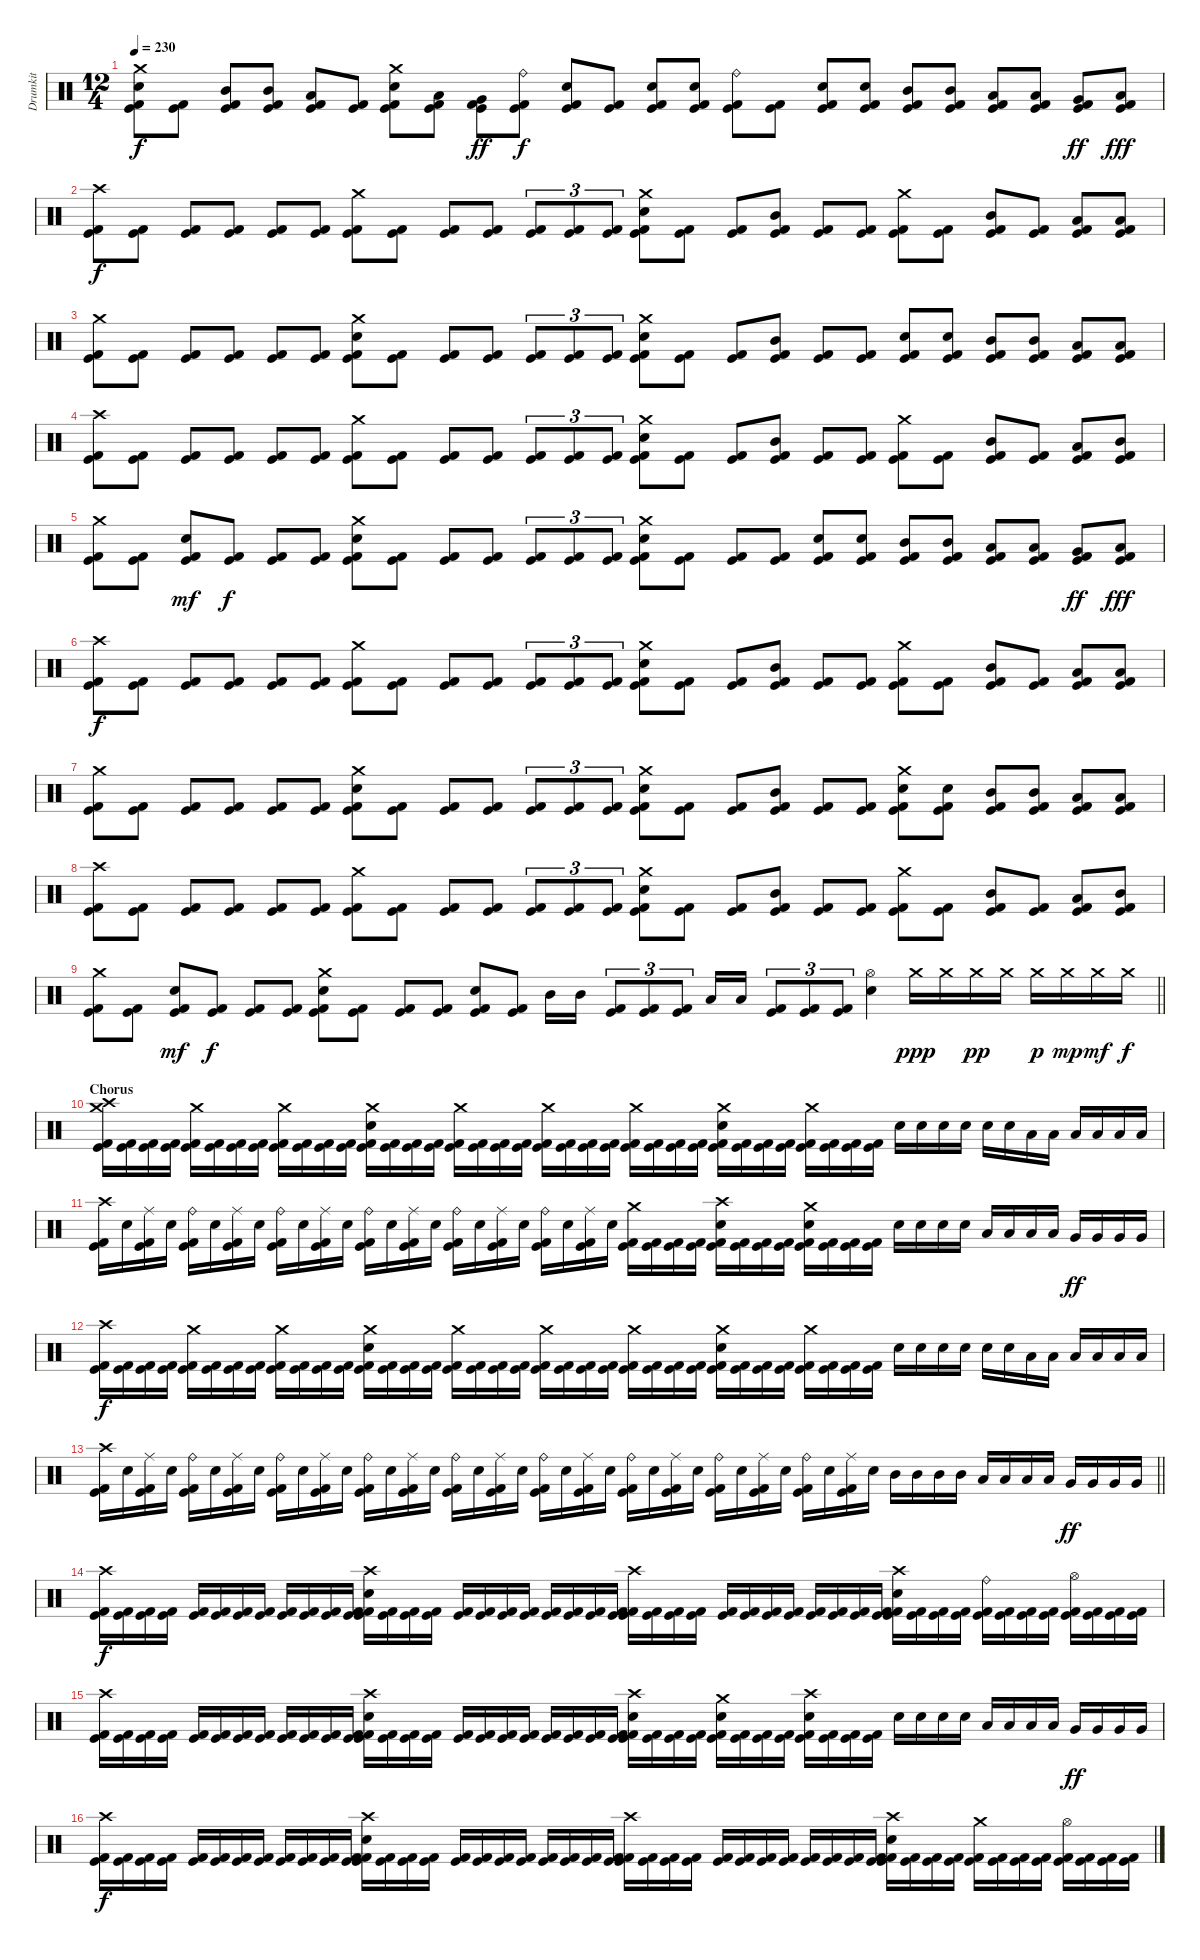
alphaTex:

\track ("Drumkit" "Drumkit") {instrument percussion}
\staff {score}
\articulation defaults
\ts (12 4)
\tempo 230
\clef neutral
\ks c
("Crash medium (hit)" "Electric Snare (hit)" "Kick (hit)" "Kick (hit) 2").8{dy f} ("Kick (hit)" "Kick (hit) 2").8 ("Mid Tom (hit)" "Kick (hit)" "Kick (hit) 2").8 ("Mid Tom (hit)" "Kick (hit)" "Kick (hit) 2").8 ("Low Tom (hit)" "Kick (hit)" "Kick (hit) 2").8 ("Kick (hit)" "Kick (hit) 2").8 ("Crash medium (hit)" "Electric Snare (hit)" "Kick (hit)" "Kick (hit) 2").8 ("Low Tom (hit)" "Kick (hit)" "Kick (hit) 2").8 ("Very Low Tom (hit)" "Kick (hit)" "Kick (hit) 2").8{dy ff} ("Ride (bell)" "Kick (hit)" "Kick (hit) 2").8{dy f} ("Electric Snare (hit)" "Kick (hit)" "Kick (hit) 2").8 ("Kick (hit)" "Kick (hit) 2").8 ("Electric Snare (hit)" "Kick (hit)" "Kick (hit) 2").8 ("Electric Snare (hit)" "Kick (hit)" "Kick (hit) 2").8 ("Ride (bell)" "Kick (hit)" "Kick (hit) 2").8 ("Kick (hit)" "Kick (hit) 2").8 ("Electric Snare (hit)" "Kick (hit)" "Kick (hit) 2").8 ("Electric Snare (hit)" "Kick (hit)" "Kick (hit) 2").8 ("Mid Tom (hit)" "Kick (hit)" "Kick (hit) 2").8 ("Mid Tom (hit)" "Kick (hit)" "Kick (hit) 2").8 ("Low Tom (hit)" "Kick (hit)" "Kick (hit) 2").8 ("Low Tom (hit)" "Kick (hit)" "Kick (hit) 2").8 ("Very Low Tom (hit)" "Kick (hit)" "Kick (hit) 2").8{dy ff} ("Low Floor Tom (hit)" "Kick (hit)" "Kick (hit) 2").8{dy fff} |
("Crash high (hit)" "Kick (hit)" "Kick (hit) 2").8{dy f} ("Kick (hit)" "Kick (hit) 2").8 ("Kick (hit)" "Kick (hit) 2").8 ("Kick (hit)" "Kick (hit) 2").8 ("Kick (hit)" "Kick (hit) 2").8 ("Kick (hit)" "Kick (hit) 2").8 ("Crash medium (hit)" "Kick (hit)" "Kick (hit) 2").8 ("Kick (hit)" "Kick (hit) 2").8 ("Kick (hit)" "Kick (hit) 2").8 ("Kick (hit)" "Kick (hit) 2").8 ("Kick (hit)" "Kick (hit) 2").8{tu (3 2)} ("Kick (hit)" "Kick (hit) 2").8{tu (3 2)} ("Kick (hit)" "Kick (hit) 2").8{tu (3 2)} ("Crash medium (hit)" "Electric Snare (hit)" "Kick (hit)" "Kick (hit) 2").8 ("Kick (hit)" "Kick (hit) 2").8 ("Kick (hit)" "Kick (hit) 2").8 ("Mid Tom (hit)" "Kick (hit)" "Kick (hit) 2").8 ("Kick (hit)" "Kick (hit) 2").8 ("Kick (hit)" "Kick (hit) 2").8 ("Crash medium (hit)" "Kick (hit)" "Kick (hit) 2").8 ("Kick (hit)" "Kick (hit) 2").8 ("Mid Tom (hit)" "Kick (hit)" "Kick (hit) 2").8 ("Kick (hit)" "Kick (hit) 2").8 ("Low Tom (hit)" "Kick (hit)" "Kick (hit) 2").8 ("Low Tom (hit)" "Kick (hit)" "Kick (hit) 2").8 |
("Crash medium (hit)" "Kick (hit)" "Kick (hit) 2").8 ("Kick (hit)" "Kick (hit) 2").8 ("Kick (hit)" "Kick (hit) 2").8 ("Kick (hit)" "Kick (hit) 2").8 ("Kick (hit)" "Kick (hit) 2").8 ("Kick (hit)" "Kick (hit) 2").8 ("Crash medium (hit)" "Electric Snare (hit)" "Kick (hit)" "Kick (hit) 2").8 ("Kick (hit)" "Kick (hit) 2").8 ("Kick (hit)" "Kick (hit) 2").8 ("Kick (hit)" "Kick (hit) 2").8 ("Kick (hit)" "Kick (hit) 2").8{tu (3 2)} ("Kick (hit)" "Kick (hit) 2").8{tu (3 2)} ("Kick (hit)" "Kick (hit) 2").8{tu (3 2)} ("Crash medium (hit)" "Electric Snare (hit)" "Kick (hit)" "Kick (hit) 2").8 ("Kick (hit)" "Kick (hit) 2").8 ("Kick (hit)" "Kick (hit) 2").8 ("Mid Tom (hit)" "Kick (hit)" "Kick (hit) 2").8 ("Kick (hit)" "Kick (hit) 2").8 ("Kick (hit)" "Kick (hit) 2").8 ("Electric Snare (hit)" "Kick (hit)" "Kick (hit) 2").8 ("Electric Snare (hit)" "Kick (hit)" "Kick (hit) 2").8 ("Mid Tom (hit)" "Kick (hit)" "Kick (hit) 2").8 ("Mid Tom (hit)" "Kick (hit)" "Kick (hit) 2").8 ("Low Tom (hit)" "Kick (hit)" "Kick (hit) 2").8 ("Low Tom (hit)" "Kick (hit)" "Kick (hit) 2").8 |
("Crash high (hit)" "Kick (hit)" "Kick (hit) 2").8 ("Kick (hit)" "Kick (hit) 2").8 ("Kick (hit)" "Kick (hit) 2").8 ("Kick (hit)" "Kick (hit) 2").8 ("Kick (hit)" "Kick (hit) 2").8 ("Kick (hit)" "Kick (hit) 2").8 ("Crash medium (hit)" "Kick (hit)" "Kick (hit) 2").8 ("Kick (hit)" "Kick (hit) 2").8 ("Kick (hit)" "Kick (hit) 2").8 ("Kick (hit)" "Kick (hit) 2").8 ("Kick (hit)" "Kick (hit) 2").8{tu (3 2)} ("Kick (hit)" "Kick (hit) 2").8{tu (3 2)} ("Kick (hit)" "Kick (hit) 2").8{tu (3 2)} ("Crash medium (hit)" "Electric Snare (hit)" "Kick (hit)" "Kick (hit) 2").8 ("Kick (hit)" "Kick (hit) 2").8 ("Kick (hit)" "Kick (hit) 2").8 ("Mid Tom (hit)" "Kick (hit)" "Kick (hit) 2").8 ("Kick (hit)" "Kick (hit) 2").8 ("Kick (hit)" "Kick (hit) 2").8 ("Crash medium (hit)" "Kick (hit)" "Kick (hit) 2").8 ("Kick (hit)" "Kick (hit) 2").8 ("Mid Tom (hit)" "Kick (hit)" "Kick (hit) 2").8 ("Kick (hit)" "Kick (hit) 2").8 ("Low Tom (hit)" "Kick (hit)" "Kick (hit) 2").8 ("Mid Tom (hit)" "Kick (hit)" "Kick (hit) 2").8 |
("Crash medium (hit)" "Kick (hit)" "Kick (hit) 2").8 ("Kick (hit)" "Kick (hit) 2").8 ("Electric Snare (hit)" "Kick (hit)" "Kick (hit) 2").8{dy mf} ("Kick (hit)" "Kick (hit) 2").8{dy f} ("Kick (hit)" "Kick (hit) 2").8 ("Kick (hit)" "Kick (hit) 2").8 ("Crash medium (hit)" "Electric Snare (hit)" "Kick (hit)" "Kick (hit) 2").8 ("Kick (hit)" "Kick (hit) 2").8 ("Kick (hit)" "Kick (hit) 2").8 ("Kick (hit)" "Kick (hit) 2").8 ("Kick (hit)" "Kick (hit) 2").8{tu (3 2)} ("Kick (hit)" "Kick (hit) 2").8{tu (3 2)} ("Kick (hit)" "Kick (hit) 2").8{tu (3 2)} ("Crash medium (hit)" "Electric Snare (hit)" "Kick (hit)" "Kick (hit) 2").8 ("Kick (hit)" "Kick (hit) 2").8 ("Kick (hit)" "Kick (hit) 2").8 ("Kick (hit)" "Kick (hit) 2").8 ("Electric Snare (hit)" "Kick (hit)" "Kick (hit) 2").8 ("Electric Snare (hit)" "Kick (hit)" "Kick (hit) 2").8 ("Mid Tom (hit)" "Kick (hit)" "Kick (hit) 2").8 ("Mid Tom (hit)" "Kick (hit)" "Kick (hit) 2").8 ("Low Tom (hit)" "Kick (hit)" "Kick (hit) 2").8 ("Low Tom (hit)" "Kick (hit)" "Kick (hit) 2").8 ("Very Low Tom (hit)" "Kick (hit)" "Kick (hit) 2").8{dy ff} ("Low Floor Tom (hit)" "Kick (hit)" "Kick (hit) 2").8{dy fff} |
("Crash high (hit)" "Kick (hit)" "Kick (hit) 2").8{dy f} ("Kick (hit)" "Kick (hit) 2").8 ("Kick (hit)" "Kick (hit) 2").8 ("Kick (hit)" "Kick (hit) 2").8 ("Kick (hit)" "Kick (hit) 2").8 ("Kick (hit)" "Kick (hit) 2").8 ("Crash medium (hit)" "Kick (hit)" "Kick (hit) 2").8 ("Kick (hit)" "Kick (hit) 2").8 ("Kick (hit)" "Kick (hit) 2").8 ("Kick (hit)" "Kick (hit) 2").8 ("Kick (hit)" "Kick (hit) 2").8{tu (3 2)} ("Kick (hit)" "Kick (hit) 2").8{tu (3 2)} ("Kick (hit)" "Kick (hit) 2").8{tu (3 2)} ("Crash medium (hit)" "Electric Snare (hit)" "Kick (hit)" "Kick (hit) 2").8 ("Kick (hit)" "Kick (hit) 2").8 ("Kick (hit)" "Kick (hit) 2").8 ("Mid Tom (hit)" "Kick (hit)" "Kick (hit) 2").8 ("Kick (hit)" "Kick (hit) 2").8 ("Kick (hit)" "Kick (hit) 2").8 ("Crash medium (hit)" "Kick (hit)" "Kick (hit) 2").8 ("Kick (hit)" "Kick (hit) 2").8 ("Mid Tom (hit)" "Kick (hit)" "Kick (hit) 2").8 ("Kick (hit)" "Kick (hit) 2").8 ("Low Tom (hit)" "Kick (hit)" "Kick (hit) 2").8 ("Low Tom (hit)" "Kick (hit)" "Kick (hit) 2").8 |
("Crash medium (hit)" "Kick (hit)" "Kick (hit) 2").8 ("Kick (hit)" "Kick (hit) 2").8 ("Kick (hit)" "Kick (hit) 2").8 ("Kick (hit)" "Kick (hit) 2").8 ("Kick (hit)" "Kick (hit) 2").8 ("Kick (hit)" "Kick (hit) 2").8 ("Crash medium (hit)" "Electric Snare (hit)" "Kick (hit)" "Kick (hit) 2").8 ("Kick (hit)" "Kick (hit) 2").8 ("Kick (hit)" "Kick (hit) 2").8 ("Kick (hit)" "Kick (hit) 2").8 ("Kick (hit)" "Kick (hit) 2").8{tu (3 2)} ("Kick (hit)" "Kick (hit) 2").8{tu (3 2)} ("Kick (hit)" "Kick (hit) 2").8{tu (3 2)} ("Crash medium (hit)" "Electric Snare (hit)" "Kick (hit)" "Kick (hit) 2").8 ("Kick (hit)" "Kick (hit) 2").8 ("Kick (hit)" "Kick (hit) 2").8 ("Mid Tom (hit)" "Kick (hit)" "Kick (hit) 2").8 ("Kick (hit)" "Kick (hit) 2").8 ("Kick (hit)" "Kick (hit) 2").8 ("Crash medium (hit)" "Electric Snare (hit)" "Kick (hit)" "Kick (hit) 2").8 ("Electric Snare (hit)" "Kick (hit)" "Kick (hit) 2").8 ("Mid Tom (hit)" "Kick (hit)" "Kick (hit) 2").8 ("Mid Tom (hit)" "Kick (hit)" "Kick (hit) 2").8 ("Low Tom (hit)" "Kick (hit)" "Kick (hit) 2").8 ("Low Tom (hit)" "Kick (hit)" "Kick (hit) 2").8 |
("Crash high (hit)" "Kick (hit)" "Kick (hit) 2").8 ("Kick (hit)" "Kick (hit) 2").8 ("Kick (hit)" "Kick (hit) 2").8 ("Kick (hit)" "Kick (hit) 2").8 ("Kick (hit)" "Kick (hit) 2").8 ("Kick (hit)" "Kick (hit) 2").8 ("Crash medium (hit)" "Kick (hit)" "Kick (hit) 2").8 ("Kick (hit)" "Kick (hit) 2").8 ("Kick (hit)" "Kick (hit) 2").8 ("Kick (hit)" "Kick (hit) 2").8 ("Kick (hit)" "Kick (hit) 2").8{tu (3 2)} ("Kick (hit)" "Kick (hit) 2").8{tu (3 2)} ("Kick (hit)" "Kick (hit) 2").8{tu (3 2)} ("Crash medium (hit)" "Electric Snare (hit)" "Kick (hit)" "Kick (hit) 2").8 ("Kick (hit)" "Kick (hit) 2").8 ("Kick (hit)" "Kick (hit) 2").8 ("Mid Tom (hit)" "Kick (hit)" "Kick (hit) 2").8 ("Kick (hit)" "Kick (hit) 2").8 ("Kick (hit)" "Kick (hit) 2").8 ("Crash medium (hit)" "Kick (hit)" "Kick (hit) 2").8 ("Kick (hit)" "Kick (hit) 2").8 ("Mid Tom (hit)" "Kick (hit)" "Kick (hit) 2").8 ("Kick (hit)" "Kick (hit) 2").8 ("Low Tom (hit)" "Kick (hit)" "Kick (hit) 2").8 ("Mid Tom (hit)" "Kick (hit)" "Kick (hit) 2").8 |
\barLineRight lightlight
("Crash medium (hit)" "Kick (hit)" "Kick (hit) 2").8 ("Kick (hit)" "Kick (hit) 2").8 ("Electric Snare (hit)" "Kick (hit)" "Kick (hit) 2").8{dy mf} ("Kick (hit)" "Kick (hit) 2").8{dy f} ("Kick (hit)" "Kick (hit) 2").8 ("Kick (hit)" "Kick (hit) 2").8 ("Crash medium (hit)" "Electric Snare (hit)" "Kick (hit)" "Kick (hit) 2").8 ("Kick (hit)" "Kick (hit) 2").8 ("Kick (hit)" "Kick (hit) 2").8 ("Kick (hit)" "Kick (hit) 2").8 ("Electric Snare (hit)" "Kick (hit)" "Kick (hit) 2").8 ("Kick (hit)" "Kick (hit) 2").8 "Mid Tom (hit)".16 "Mid Tom (hit)".16 ("Kick (hit)" "Kick (hit) 2").8{tu (3 2)} ("Kick (hit)" "Kick (hit) 2").8{tu (3 2)} ("Kick (hit)" "Kick (hit) 2").8{tu (3 2)} "Low Tom (hit)".16 "Low Tom (hit)".16 ("Kick (hit)" "Kick (hit) 2").8{tu (3 2)} ("Kick (hit)" "Kick (hit) 2").8{tu (3 2)} ("Kick (hit)" "Kick (hit) 2").8{tu (3 2)} ("Hi-Hat (open)" "Electric Snare (hit)").4 "Crash medium (hit)".16{dy ppp} "Crash medium (hit)".16 "Crash medium (hit)".16{dy pp} "Crash medium (hit)".16 "Crash medium (hit)".16{dy p} "Crash medium (hit)".16{dy mp} "Crash medium (hit)".16{dy mf} "Crash medium (hit)".16{dy f} |
\section ("" "Chorus")
("Crash high (hit)" "Crash medium (hit)" "Kick (hit)" "Kick (hit) 2").16 ("Kick (hit)" "Kick (hit) 2").16 ("Kick (hit)" "Kick (hit) 2").16 ("Kick (hit)" "Kick (hit) 2").16 ("Crash medium (hit)" "Kick (hit)" "Kick (hit) 2").16 ("Kick (hit)" "Kick (hit) 2").16 ("Kick (hit)" "Kick (hit) 2").16 ("Kick (hit)" "Kick (hit) 2").16 ("Crash medium (hit)" "Kick (hit)" "Kick (hit) 2").16 ("Kick (hit)" "Kick (hit) 2").16 ("Kick (hit)" "Kick (hit) 2").16 ("Kick (hit)" "Kick (hit) 2").16 ("Crash medium (hit)" "Electric Snare (hit)" "Kick (hit)" "Kick (hit) 2").16 ("Kick (hit)" "Kick (hit) 2").16 ("Kick (hit)" "Kick (hit) 2").16 ("Kick (hit)" "Kick (hit) 2").16 ("Crash medium (hit)" "Kick (hit)" "Kick (hit) 2").16 ("Kick (hit)" "Kick (hit) 2").16 ("Kick (hit)" "Kick (hit) 2").16 ("Kick (hit)" "Kick (hit) 2").16 ("Crash medium (hit)" "Kick (hit)" "Kick (hit) 2").16 ("Kick (hit)" "Kick (hit) 2").16 ("Kick (hit)" "Kick (hit) 2").16 ("Kick (hit)" "Kick (hit) 2").16 ("Crash medium (hit)" "Kick (hit)" "Kick (hit) 2").16 ("Kick (hit)" "Kick (hit) 2").16 ("Kick (hit)" "Kick (hit) 2").16 ("Kick (hit)" "Kick (hit) 2").16 ("Crash medium (hit)" "Electric Snare (hit)" "Kick (hit)" "Kick (hit) 2").16 ("Kick (hit)" "Kick (hit) 2").16 ("Kick (hit)" "Kick (hit) 2").16 ("Kick (hit)" "Kick (hit) 2").16 ("Crash medium (hit)" "Kick (hit)" "Kick (hit) 2").16 ("Kick (hit)" "Kick (hit) 2").16 ("Kick (hit)" "Kick (hit) 2").16 ("Kick (hit)" "Kick (hit) 2").16 "Electric Snare (hit)".16 "Electric Snare (hit)".16 "Electric Snare (hit)".16 "Electric Snare (hit)".16 "Electric Snare (hit)".16 "Electric Snare (hit)".16 "Low Tom (hit)".16 "Low Tom (hit)".16 "Low Tom (hit)".16 "Low Tom (hit)".16 "Low Tom (hit)".16 "Low Tom (hit)".16 |
("Crash high (hit)" "Kick (hit)" "Kick (hit) 2").16 "Electric Snare (hit)".16 ("Ride (middle)" "Kick (hit)" "Kick (hit) 2").16 "Electric Snare (hit)".16 ("Ride (bell)" "Kick (hit)" "Kick (hit) 2").16 "Electric Snare (hit)".16 ("Ride (middle)" "Kick (hit)" "Kick (hit) 2").16 "Electric Snare (hit)".16 ("Ride (bell)" "Kick (hit)" "Kick (hit) 2").16 "Electric Snare (hit)".16 ("Ride (middle)" "Kick (hit)" "Kick (hit) 2").16 "Electric Snare (hit)".16 ("Ride (bell)" "Kick (hit)" "Kick (hit) 2").16 "Electric Snare (hit)".16 ("Ride (middle)" "Kick (hit)" "Kick (hit) 2").16 "Electric Snare (hit)".16 ("Ride (bell)" "Kick (hit)" "Kick (hit) 2").16 "Electric Snare (hit)".16 ("Ride (middle)" "Kick (hit)" "Kick (hit) 2").16 "Electric Snare (hit)".16 ("Ride (bell)" "Kick (hit)" "Kick (hit) 2").16 "Electric Snare (hit)".16 ("Ride (middle)" "Kick (hit)" "Kick (hit) 2").16 "Electric Snare (hit)".16 ("Crash medium (hit)" "Kick (hit)" "Kick (hit) 2").16 ("Kick (hit)" "Kick (hit) 2").16 ("Kick (hit)" "Kick (hit) 2").16 ("Kick (hit)" "Kick (hit) 2").16 ("Crash high (hit)" "Electric Snare (hit)" "Kick (hit)" "Kick (hit) 2").16 ("Kick (hit)" "Kick (hit) 2").16 ("Kick (hit)" "Kick (hit) 2").16 ("Kick (hit)" "Kick (hit) 2").16 ("Crash medium (hit)" "Electric Snare (hit)" "Kick (hit)" "Kick (hit) 2").16 ("Kick (hit)" "Kick (hit) 2").16 ("Kick (hit)" "Kick (hit) 2").16 ("Kick (hit)" "Kick (hit) 2").16 "Electric Snare (hit)".16 "Electric Snare (hit)".16 "Electric Snare (hit)".16 "Electric Snare (hit)".16 "Low Tom (hit)".16 "Low Tom (hit)".16 "Low Tom (hit)".16 "Low Tom (hit)".16 "Very Low Tom (hit)".16{dy ff} "Very Low Tom (hit)".16 "Very Low Tom (hit)".16 "Very Low Tom (hit)".16 |
("Crash high (hit)" "Kick (hit)" "Kick (hit) 2").16{dy f} ("Kick (hit)" "Kick (hit) 2").16 ("Kick (hit)" "Kick (hit) 2").16 ("Kick (hit)" "Kick (hit) 2").16 ("Crash medium (hit)" "Kick (hit)" "Kick (hit) 2").16 ("Kick (hit)" "Kick (hit) 2").16 ("Kick (hit)" "Kick (hit) 2").16 ("Kick (hit)" "Kick (hit) 2").16 ("Crash medium (hit)" "Kick (hit)" "Kick (hit) 2").16 ("Kick (hit)" "Kick (hit) 2").16 ("Kick (hit)" "Kick (hit) 2").16 ("Kick (hit)" "Kick (hit) 2").16 ("Crash medium (hit)" "Electric Snare (hit)" "Kick (hit)" "Kick (hit) 2").16 ("Kick (hit)" "Kick (hit) 2").16 ("Kick (hit)" "Kick (hit) 2").16 ("Kick (hit)" "Kick (hit) 2").16 ("Crash medium (hit)" "Kick (hit)" "Kick (hit) 2").16 ("Kick (hit)" "Kick (hit) 2").16 ("Kick (hit)" "Kick (hit) 2").16 ("Kick (hit)" "Kick (hit) 2").16 ("Crash medium (hit)" "Kick (hit)" "Kick (hit) 2").16 ("Kick (hit)" "Kick (hit) 2").16 ("Kick (hit)" "Kick (hit) 2").16 ("Kick (hit)" "Kick (hit) 2").16 ("Crash medium (hit)" "Kick (hit)" "Kick (hit) 2").16 ("Kick (hit)" "Kick (hit) 2").16 ("Kick (hit)" "Kick (hit) 2").16 ("Kick (hit)" "Kick (hit) 2").16 ("Crash medium (hit)" "Electric Snare (hit)" "Kick (hit)" "Kick (hit) 2").16 ("Kick (hit)" "Kick (hit) 2").16 ("Kick (hit)" "Kick (hit) 2").16 ("Kick (hit)" "Kick (hit) 2").16 ("Crash medium (hit)" "Kick (hit)" "Kick (hit) 2").16 ("Kick (hit)" "Kick (hit) 2").16 ("Kick (hit)" "Kick (hit) 2").16 ("Kick (hit)" "Kick (hit) 2").16 "Electric Snare (hit)".16 "Electric Snare (hit)".16 "Electric Snare (hit)".16 "Electric Snare (hit)".16 "Electric Snare (hit)".16 "Electric Snare (hit)".16 "Low Tom (hit)".16 "Low Tom (hit)".16 "Low Tom (hit)".16 "Low Tom (hit)".16 "Low Tom (hit)".16 "Low Tom (hit)".16 |
\barLineRight lightlight
("Crash high (hit)" "Kick (hit)" "Kick (hit) 2").16 "Electric Snare (hit)".16 ("Ride (middle)" "Kick (hit)" "Kick (hit) 2").16 "Electric Snare (hit)".16 ("Ride (bell)" "Kick (hit)" "Kick (hit) 2").16 "Electric Snare (hit)".16 ("Ride (middle)" "Kick (hit)" "Kick (hit) 2").16 "Electric Snare (hit)".16 ("Ride (bell)" "Kick (hit)" "Kick (hit) 2").16 "Electric Snare (hit)".16 ("Ride (middle)" "Kick (hit)" "Kick (hit) 2").16 "Electric Snare (hit)".16 ("Ride (bell)" "Kick (hit)" "Kick (hit) 2").16 "Electric Snare (hit)".16 ("Ride (middle)" "Kick (hit)" "Kick (hit) 2").16 "Electric Snare (hit)".16 ("Ride (bell)" "Kick (hit)" "Kick (hit) 2").16 "Electric Snare (hit)".16 ("Ride (middle)" "Kick (hit)" "Kick (hit) 2").16 "Electric Snare (hit)".16 ("Ride (bell)" "Kick (hit)" "Kick (hit) 2").16 "Electric Snare (hit)".16 ("Ride (middle)" "Kick (hit)" "Kick (hit) 2").16 "Electric Snare (hit)".16 ("Ride (bell)" "Kick (hit)" "Kick (hit) 2").16 "Electric Snare (hit)".16 ("Ride (middle)" "Kick (hit)" "Kick (hit) 2").16 "Electric Snare (hit)".16 ("Ride (bell)" "Kick (hit)" "Kick (hit) 2").16 "Electric Snare (hit)".16 ("Ride (middle)" "Kick (hit)" "Kick (hit) 2").16 "Electric Snare (hit)".16 ("Ride (bell)" "Kick (hit)" "Kick (hit) 2").16 "Electric Snare (hit)".16 ("Ride (middle)" "Kick (hit)" "Kick (hit) 2").16 "Electric Snare (hit)".16 "Mid Tom (hit)".16 "Mid Tom (hit)".16 "Mid Tom (hit)".16 "Mid Tom (hit)".16 "Low Tom (hit)".16 "Low Tom (hit)".16 "Low Tom (hit)".16 "Low Tom (hit)".16 "Very Low Tom (hit)".16{dy ff} "Very Low Tom (hit)".16 "Very Low Tom (hit)".16 "Very Low Tom (hit)".16 |
("Crash high (hit)" "Kick (hit)" "Kick (hit) 2").16{dy f} ("Kick (hit)" "Kick (hit) 2").16 ("Kick (hit)" "Kick (hit) 2").16 ("Kick (hit)" "Kick (hit) 2").16 ("Kick (hit)" "Kick (hit) 2").16 ("Kick (hit)" "Kick (hit) 2").16 ("Kick (hit)" "Kick (hit) 2").16 ("Kick (hit)" "Kick (hit) 2").16 ("Kick (hit)" "Kick (hit) 2").16 ("Kick (hit)" "Kick (hit) 2").16 ("Kick (hit)" "Kick (hit) 2").16 ("Kick (hit)" "Kick (hit) 2").16 ("Crash high (hit)" "Electric Snare (hit)" "Kick (hit)" "Kick (hit) 2").16 ("Kick (hit)" "Kick (hit) 2").16 ("Kick (hit)" "Kick (hit) 2").16 ("Kick (hit)" "Kick (hit) 2").16 ("Kick (hit)" "Kick (hit) 2").16 ("Kick (hit)" "Kick (hit) 2").16 ("Kick (hit)" "Kick (hit) 2").16 ("Kick (hit)" "Kick (hit) 2").16 ("Kick (hit)" "Kick (hit) 2").16 ("Kick (hit)" "Kick (hit) 2").16 ("Kick (hit)" "Kick (hit) 2").16 ("Kick (hit)" "Kick (hit) 2").16 ("Crash high (hit)" "Kick (hit)" "Kick (hit) 2").16 ("Kick (hit)" "Kick (hit) 2").16 ("Kick (hit)" "Kick (hit) 2").16 ("Kick (hit)" "Kick (hit) 2").16 ("Kick (hit)" "Kick (hit) 2").16 ("Kick (hit)" "Kick (hit) 2").16 ("Kick (hit)" "Kick (hit) 2").16 ("Kick (hit)" "Kick (hit) 2").16 ("Kick (hit)" "Kick (hit) 2").16 ("Kick (hit)" "Kick (hit) 2").16 ("Kick (hit)" "Kick (hit) 2").16 ("Kick (hit)" "Kick (hit) 2").16 ("Crash high (hit)" "Electric Snare (hit)" "Kick (hit)" "Kick (hit) 2").16 ("Kick (hit)" "Kick (hit) 2").16 ("Kick (hit)" "Kick (hit) 2").16 ("Kick (hit)" "Kick (hit) 2").16 ("Ride (bell)" "Kick (hit)" "Kick (hit) 2").16 ("Kick (hit)" "Kick (hit) 2").16 ("Kick (hit)" "Kick (hit) 2").16 ("Kick (hit)" "Kick (hit) 2").16 ("Hi-Hat (open)" "Kick (hit)" "Kick (hit) 2").16 ("Kick (hit)" "Kick (hit) 2").16 ("Kick (hit)" "Kick (hit) 2").16 ("Kick (hit)" "Kick (hit) 2").16 |
("Crash high (hit)" "Kick (hit)" "Kick (hit) 2").16 ("Kick (hit)" "Kick (hit) 2").16 ("Kick (hit)" "Kick (hit) 2").16 ("Kick (hit)" "Kick (hit) 2").16 ("Kick (hit)" "Kick (hit) 2").16 ("Kick (hit)" "Kick (hit) 2").16 ("Kick (hit)" "Kick (hit) 2").16 ("Kick (hit)" "Kick (hit) 2").16 ("Kick (hit)" "Kick (hit) 2").16 ("Kick (hit)" "Kick (hit) 2").16 ("Kick (hit)" "Kick (hit) 2").16 ("Kick (hit)" "Kick (hit) 2").16 ("Crash high (hit)" "Electric Snare (hit)" "Kick (hit)" "Kick (hit) 2").16 ("Kick (hit)" "Kick (hit) 2").16 ("Kick (hit)" "Kick (hit) 2").16 ("Kick (hit)" "Kick (hit) 2").16 ("Kick (hit)" "Kick (hit) 2").16 ("Kick (hit)" "Kick (hit) 2").16 ("Kick (hit)" "Kick (hit) 2").16 ("Kick (hit)" "Kick (hit) 2").16 ("Kick (hit)" "Kick (hit) 2").16 ("Kick (hit)" "Kick (hit) 2").16 ("Kick (hit)" "Kick (hit) 2").16 ("Kick (hit)" "Kick (hit) 2").16 ("Crash high (hit)" "Electric Snare (hit)" "Kick (hit)" "Kick (hit) 2").16 ("Kick (hit)" "Kick (hit) 2").16 ("Kick (hit)" "Kick (hit) 2").16 ("Kick (hit)" "Kick (hit) 2").16 ("Crash medium (hit)" "Electric Snare (hit)" "Kick (hit)" "Kick (hit) 2").16 ("Kick (hit)" "Kick (hit) 2").16 ("Kick (hit)" "Kick (hit) 2").16 ("Kick (hit)" "Kick (hit) 2").16 ("Crash high (hit)" "Electric Snare (hit)" "Kick (hit)" "Kick (hit) 2").16 ("Kick (hit)" "Kick (hit) 2").16 ("Kick (hit)" "Kick (hit) 2").16 ("Kick (hit)" "Kick (hit) 2").16 "Electric Snare (hit)".16 "Electric Snare (hit)".16 "Electric Snare (hit)".16 "Electric Snare (hit)".16 "Low Tom (hit)".16 "Low Tom (hit)".16 "Low Tom (hit)".16 "Low Tom (hit)".16 "Very Low Tom (hit)".16{dy ff} "Very Low Tom (hit)".16 "Very Low Tom (hit)".16 "Very Low Tom (hit)".16 |
("Crash high (hit)" "Kick (hit)" "Kick (hit) 2").16{dy f} ("Kick (hit)" "Kick (hit) 2").16 ("Kick (hit)" "Kick (hit) 2").16 ("Kick (hit)" "Kick (hit) 2").16 ("Kick (hit)" "Kick (hit) 2").16 ("Kick (hit)" "Kick (hit) 2").16 ("Kick (hit)" "Kick (hit) 2").16 ("Kick (hit)" "Kick (hit) 2").16 ("Kick (hit)" "Kick (hit) 2").16 ("Kick (hit)" "Kick (hit) 2").16 ("Kick (hit)" "Kick (hit) 2").16 ("Kick (hit)" "Kick (hit) 2").16 ("Crash high (hit)" "Electric Snare (hit)" "Kick (hit)" "Kick (hit) 2").16 ("Kick (hit)" "Kick (hit) 2").16 ("Kick (hit)" "Kick (hit) 2").16 ("Kick (hit)" "Kick (hit) 2").16 ("Kick (hit)" "Kick (hit) 2").16 ("Kick (hit)" "Kick (hit) 2").16 ("Kick (hit)" "Kick (hit) 2").16 ("Kick (hit)" "Kick (hit) 2").16 ("Kick (hit)" "Kick (hit) 2").16 ("Kick (hit)" "Kick (hit) 2").16 ("Kick (hit)" "Kick (hit) 2").16 ("Kick (hit)" "Kick (hit) 2").16 ("Crash high (hit)" "Kick (hit)" "Kick (hit) 2").16 ("Kick (hit)" "Kick (hit) 2").16 ("Kick (hit)" "Kick (hit) 2").16 ("Kick (hit)" "Kick (hit) 2").16 ("Kick (hit)" "Kick (hit) 2").16 ("Kick (hit)" "Kick (hit) 2").16 ("Kick (hit)" "Kick (hit) 2").16 ("Kick (hit)" "Kick (hit) 2").16 ("Kick (hit)" "Kick (hit) 2").16 ("Kick (hit)" "Kick (hit) 2").16 ("Kick (hit)" "Kick (hit) 2").16 ("Kick (hit)" "Kick (hit) 2").16 ("Crash high (hit)" "Electric Snare (hit)" "Kick (hit)" "Kick (hit) 2").16 ("Kick (hit)" "Kick (hit) 2").16 ("Kick (hit)" "Kick (hit) 2").16 ("Kick (hit)" "Kick (hit) 2").16 ("Crash medium (hit)" "Kick (hit)" "Kick (hit) 2").16 ("Kick (hit)" "Kick (hit) 2").16 ("Kick (hit)" "Kick (hit) 2").16 ("Kick (hit)" "Kick (hit) 2").16 ("Hi-Hat (open)" "Kick (hit)" "Kick (hit) 2").16 ("Kick (hit)" "Kick (hit) 2").16 ("Kick (hit)" "Kick (hit) 2").16 ("Kick (hit)" "Kick (hit) 2").16
